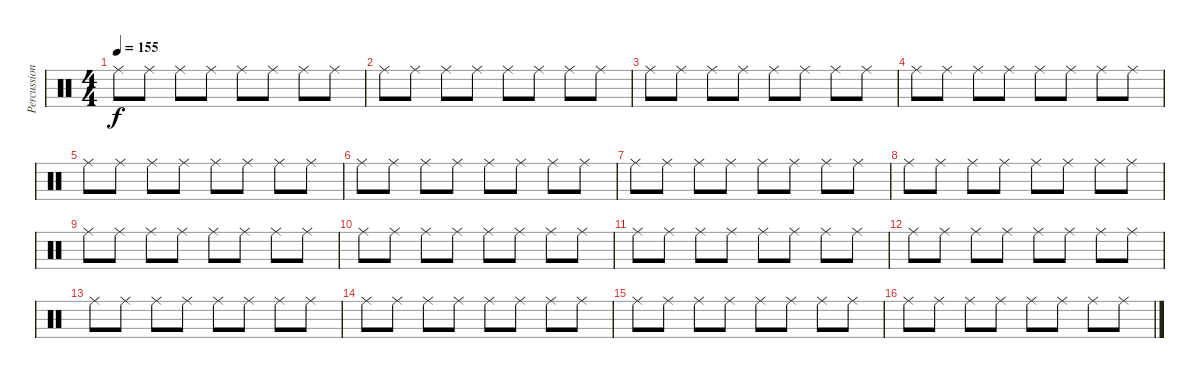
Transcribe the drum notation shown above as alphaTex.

\track ("Percussion 2" "Percussion") {instrument percussion}
\staff {score}
\articulation defaults
\ts (4 4)
\tempo 155
\clef neutral
\ks c "Ride (middle)".8{dy f} "Ride (middle)".8 "Ride (middle)".8 "Ride (middle)".8 "Ride (middle)".8 "Ride (middle)".8 "Ride (middle)".8 "Ride (middle)".8
|
"Ride (middle)".8 "Ride (middle)".8 "Ride (middle)".8 "Ride (middle)".8 "Ride (middle)".8 "Ride (middle)".8 "Ride (middle)".8 "Ride (middle)".8 |
"Ride (middle)".8 "Ride (middle)".8 "Ride (middle)".8 "Ride (middle)".8 "Ride (middle)".8 "Ride (middle)".8 "Ride (middle)".8 "Ride (middle)".8 |
"Ride (middle)".8 "Ride (middle)".8 "Ride (middle)".8 "Ride (middle)".8 "Ride (middle)".8 "Ride (middle)".8 "Ride (middle)".8 "Ride (middle)".8 |
"Ride (middle)".8 "Ride (middle)".8 "Ride (middle)".8 "Ride (middle)".8 "Ride (middle)".8 "Ride (middle)".8 "Ride (middle)".8 "Ride (middle)".8 |
"Ride (middle)".8 "Ride (middle)".8 "Ride (middle)".8 "Ride (middle)".8 "Ride (middle)".8 "Ride (middle)".8 "Ride (middle)".8 "Ride (middle)".8 |
"Ride (middle)".8 "Ride (middle)".8 "Ride (middle)".8 "Ride (middle)".8 "Ride (middle)".8 "Ride (middle)".8 "Ride (middle)".8 "Ride (middle)".8 |
"Ride (middle)".8 "Ride (middle)".8 "Ride (middle)".8 "Ride (middle)".8 "Ride (middle)".8 "Ride (middle)".8 "Ride (middle)".8 "Ride (middle)".8 |
"Ride (middle)".8 "Ride (middle)".8 "Ride (middle)".8 "Ride (middle)".8 "Ride (middle)".8 "Ride (middle)".8 "Ride (middle)".8 "Ride (middle)".8 |
"Ride (middle)".8 "Ride (middle)".8 "Ride (middle)".8 "Ride (middle)".8 "Ride (middle)".8 "Ride (middle)".8 "Ride (middle)".8 "Ride (middle)".8 |
"Ride (middle)".8 "Ride (middle)".8 "Ride (middle)".8 "Ride (middle)".8 "Ride (middle)".8 "Ride (middle)".8 "Ride (middle)".8 "Ride (middle)".8 |
"Ride (middle)".8 "Ride (middle)".8 "Ride (middle)".8 "Ride (middle)".8 "Ride (middle)".8 "Ride (middle)".8 "Ride (middle)".8 "Ride (middle)".8 |
"Ride (middle)".8 "Ride (middle)".8 "Ride (middle)".8 "Ride (middle)".8 "Ride (middle)".8 "Ride (middle)".8 "Ride (middle)".8 "Ride (middle)".8 |
"Ride (middle)".8 "Ride (middle)".8 "Ride (middle)".8 "Ride (middle)".8 "Ride (middle)".8 "Ride (middle)".8 "Ride (middle)".8 "Ride (middle)".8 |
"Ride (middle)".8 "Ride (middle)".8 "Ride (middle)".8 "Ride (middle)".8 "Ride (middle)".8 "Ride (middle)".8 "Ride (middle)".8 "Ride (middle)".8 |
"Ride (middle)".8 "Ride (middle)".8 "Ride (middle)".8 "Ride (middle)".8 "Ride (middle)".8 "Ride (middle)".8 "Ride (middle)".8 "Ride (middle)".8
